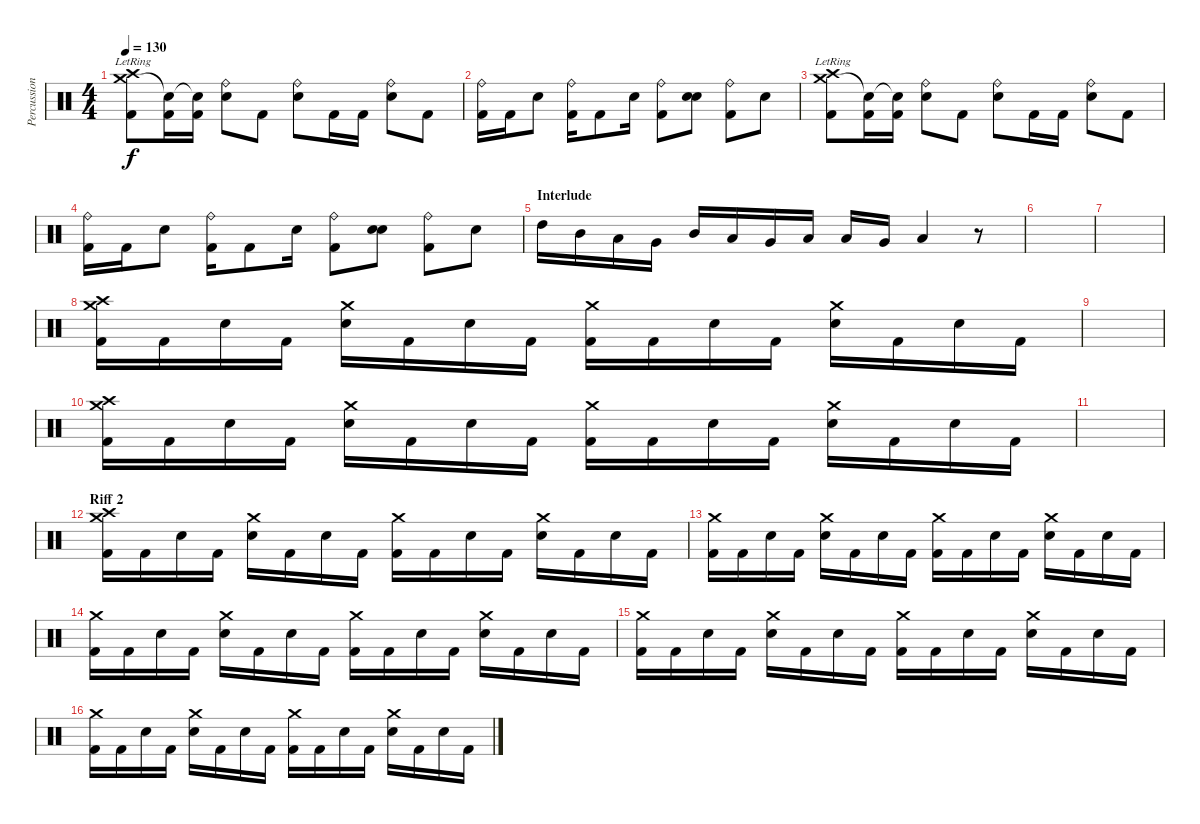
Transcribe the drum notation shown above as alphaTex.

\track ("Percussion" "Percussion") {instrument percussion}
\staff {score}
\articulation defaults
\ts (4 4)
\tempo 130
\clef neutral
\ks c
("Crash medium (hit)" "Crash high (hit)"{lr} "Kick (hit) 2").8{dy f} ("Snare (hit)"{t} "Kick (hit) 2").16 ("Snare (hit)"{t} "Kick (hit) 2").16 ("Ride (bell)" "Snare (hit) 2").8 "Kick (hit) 2".8 ("Ride (bell)" "Snare (hit) 2").8 "Kick (hit) 2".16 "Kick (hit) 2".16 ("Ride (bell)" "Snare (hit) 2").8 "Kick (hit) 2".8 |
("Ride (bell)" "Kick (hit) 2").16 "Kick (hit) 2".16 "Snare (hit) 2".8 ("Ride (bell)" "Kick (hit) 2").16 "Kick (hit) 2".8 "Snare (hit) 2".16 ("Ride (bell)" "Kick (hit) 2").8 ("Snare (hit) 2" "Snare (hit) 2").8 ("Ride (bell)" "Kick (hit) 2").8 "Snare (hit) 2".8 |
("Crash medium (hit)" "Crash high (hit)"{lr} "Kick (hit) 2").8 ("Snare (hit)"{t} "Kick (hit) 2").16 ("Snare (hit)"{t} "Kick (hit) 2").16 ("Ride (bell)" "Snare (hit) 2").8 "Kick (hit) 2".8 ("Ride (bell)" "Snare (hit) 2").8 "Kick (hit) 2".16 "Kick (hit) 2".16 ("Ride (bell)" "Snare (hit) 2").8 "Kick (hit) 2".8 |
("Ride (bell)" "Kick (hit) 2").16 "Kick (hit) 2".16 "Snare (hit) 2".8 ("Ride (bell)" "Kick (hit) 2").16 "Kick (hit) 2".8 "Snare (hit) 2".16 ("Ride (bell)" "Kick (hit) 2").8 ("Snare (hit) 2" "Snare (hit) 2").8 ("Ride (bell)" "Kick (hit) 2").8 "Snare (hit) 2".8 |
\section ("" "Interlude")
"High Tom (hit)".16 "Mid Tom (hit)".16 "Low Tom (hit)".16 "Very Low Tom (hit)".16 "Mid Tom (hit)".16 "Low Tom (hit)".16 "Very Low Tom (hit)".16 "Low Floor Tom (hit)".16 "Low Tom (hit)".16 "Very Low Tom (hit)".16 "Low Floor Tom (hit)".4 r.8 |
|
|
("Crash medium (hit)" "Crash high (hit)" "Kick (hit) 2").16 "Kick (hit) 2".16 "Snare (hit) 2".16 "Kick (hit) 2".16 ("Crash medium (hit)" "Snare (hit) 2").16 "Kick (hit) 2".16 "Snare (hit) 2".16 "Kick (hit) 2".16 ("Crash medium (hit)" "Kick (hit) 2").16 "Kick (hit) 2".16 "Snare (hit) 2".16 "Kick (hit) 2".16 ("Crash medium (hit)" "Snare (hit) 2").16 "Kick (hit) 2".16 "Snare (hit) 2".16 "Kick (hit) 2".16 |
|
("Crash medium (hit)" "Crash high (hit)" "Kick (hit) 2").16 "Kick (hit) 2".16 "Snare (hit) 2".16 "Kick (hit) 2".16 ("Crash medium (hit)" "Snare (hit) 2").16 "Kick (hit) 2".16 "Snare (hit) 2".16 "Kick (hit) 2".16 ("Crash medium (hit)" "Kick (hit) 2").16 "Kick (hit) 2".16 "Snare (hit) 2".16 "Kick (hit) 2".16 ("Crash medium (hit)" "Snare (hit) 2").16 "Kick (hit) 2".16 "Snare (hit) 2".16 "Kick (hit) 2".16 |
|
\section ("" "Riff 2")
("Crash medium (hit)" "Crash high (hit)" "Kick (hit) 2").16 "Kick (hit) 2".16 "Snare (hit) 2".16 "Kick (hit) 2".16 ("Crash medium (hit)" "Snare (hit) 2").16 "Kick (hit) 2".16 "Snare (hit) 2".16 "Kick (hit) 2".16 ("Crash medium (hit)" "Kick (hit) 2").16 "Kick (hit) 2".16 "Snare (hit) 2".16 "Kick (hit) 2".16 ("Crash medium (hit)" "Snare (hit) 2").16 "Kick (hit) 2".16 "Snare (hit) 2".16 "Kick (hit) 2".16 |
("Crash medium (hit)" "Kick (hit) 2").16 "Kick (hit) 2".16 "Snare (hit) 2".16 "Kick (hit) 2".16 ("Crash medium (hit)" "Snare (hit) 2").16 "Kick (hit) 2".16 "Snare (hit) 2".16 "Kick (hit) 2".16 ("Crash medium (hit)" "Kick (hit) 2").16 "Kick (hit) 2".16 "Snare (hit) 2".16 "Kick (hit) 2".16 ("Crash medium (hit)" "Snare (hit) 2").16 "Kick (hit) 2".16 "Snare (hit) 2".16 "Kick (hit) 2".16 |
("Crash medium (hit)" "Kick (hit) 2").16 "Kick (hit) 2".16 "Snare (hit) 2".16 "Kick (hit) 2".16 ("Crash medium (hit)" "Snare (hit) 2").16 "Kick (hit) 2".16 "Snare (hit) 2".16 "Kick (hit) 2".16 ("Crash medium (hit)" "Kick (hit) 2").16 "Kick (hit) 2".16 "Snare (hit) 2".16 "Kick (hit) 2".16 ("Crash medium (hit)" "Snare (hit) 2").16 "Kick (hit) 2".16 "Snare (hit) 2".16 "Kick (hit) 2".16 |
("Crash medium (hit)" "Kick (hit) 2").16 "Kick (hit) 2".16 "Snare (hit) 2".16 "Kick (hit) 2".16 ("Crash medium (hit)" "Snare (hit) 2").16 "Kick (hit) 2".16 "Snare (hit) 2".16 "Kick (hit) 2".16 ("Crash medium (hit)" "Kick (hit) 2").16 "Kick (hit) 2".16 "Snare (hit) 2".16 "Kick (hit) 2".16 ("Crash medium (hit)" "Snare (hit) 2").16 "Kick (hit) 2".16 "Snare (hit) 2".16 "Kick (hit) 2".16 |
("Crash medium (hit)" "Kick (hit) 2").16 "Kick (hit) 2".16 "Snare (hit) 2".16 "Kick (hit) 2".16 ("Crash medium (hit)" "Snare (hit) 2").16 "Kick (hit) 2".16 "Snare (hit) 2".16 "Kick (hit) 2".16 ("Crash medium (hit)" "Kick (hit) 2").16 "Kick (hit) 2".16 "Snare (hit) 2".16 "Kick (hit) 2".16 ("Crash medium (hit)" "Snare (hit) 2").16 "Kick (hit) 2".16 "Snare (hit) 2".16 "Kick (hit) 2".16
